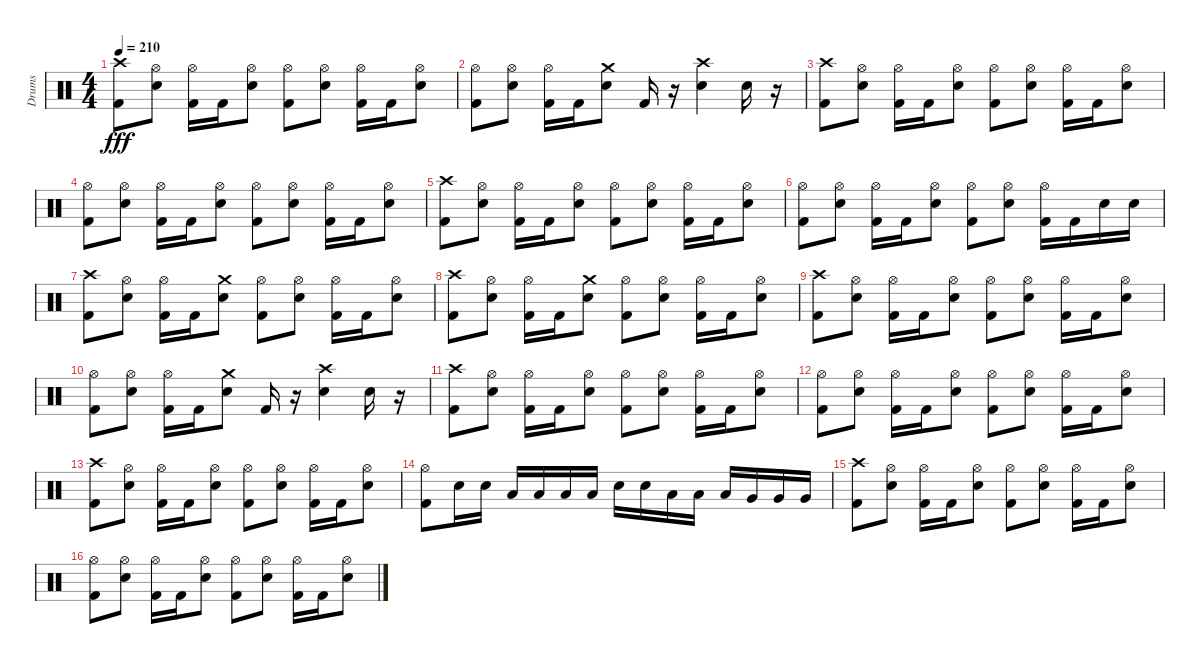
\track ("Drums" "Drums") {instrument percussion}
\staff {score}
\articulation defaults
\ts (4 4)
\tempo 210
\clef neutral
\ks c
("Kick (hit) 2" "Crash high (hit)").8{dy fff} ("Electric Snare (hit)" "Hi-Hat (open)").8 ("Kick (hit) 2" "Hi-Hat (open)").16 "Kick (hit) 2".16 ("Electric Snare (hit)" "Hi-Hat (open)").8 ("Kick (hit) 2" "Hi-Hat (open)").8 ("Electric Snare (hit)" "Hi-Hat (open)").8 ("Kick (hit) 2" "Hi-Hat (open)").16 "Kick (hit) 2".16 ("Electric Snare (hit)" "Hi-Hat (open)").8 |
("Kick (hit) 2" "Hi-Hat (open)").8 ("Electric Snare (hit)" "Hi-Hat (open)").8 ("Kick (hit) 2" "Hi-Hat (open)").16 "Kick (hit) 2".16 ("Electric Snare (hit)" "Crash medium (hit)").8 "Kick (hit) 2".16 r.16 ("Electric Snare (hit)" "Crash high (hit)").4 "Electric Snare (hit)".16 r.16 |
("Kick (hit) 2" "Crash high (hit)").8 ("Electric Snare (hit)" "Hi-Hat (open)").8 ("Kick (hit) 2" "Hi-Hat (open)").16 "Kick (hit) 2".16 ("Electric Snare (hit)" "Hi-Hat (open)").8 ("Kick (hit) 2" "Hi-Hat (open)").8 ("Electric Snare (hit)" "Hi-Hat (open)").8 ("Kick (hit) 2" "Hi-Hat (open)").16 "Kick (hit) 2".16 ("Electric Snare (hit)" "Hi-Hat (open)").8 |
("Kick (hit) 2" "Hi-Hat (open)").8 ("Electric Snare (hit)" "Hi-Hat (open)").8 ("Kick (hit) 2" "Hi-Hat (open)").16 "Kick (hit) 2".16 ("Electric Snare (hit)" "Hi-Hat (open)").8 ("Kick (hit) 2" "Hi-Hat (open)").8 ("Electric Snare (hit)" "Hi-Hat (open)").8 ("Kick (hit) 2" "Hi-Hat (open)").16 "Kick (hit) 2".16 ("Electric Snare (hit)" "Hi-Hat (open)").8 |
("Kick (hit) 2" "Crash high (hit)").8 ("Electric Snare (hit)" "Hi-Hat (open)").8 ("Kick (hit) 2" "Hi-Hat (open)").16 "Kick (hit) 2".16 ("Electric Snare (hit)" "Hi-Hat (open)").8 ("Kick (hit) 2" "Hi-Hat (open)").8 ("Electric Snare (hit)" "Hi-Hat (open)").8 ("Kick (hit) 2" "Hi-Hat (open)").16 "Kick (hit) 2".16 ("Electric Snare (hit)" "Hi-Hat (open)").8 |
("Kick (hit) 2" "Hi-Hat (open)").8 ("Electric Snare (hit)" "Hi-Hat (open)").8 ("Kick (hit) 2" "Hi-Hat (open)").16 "Kick (hit) 2".16 ("Electric Snare (hit)" "Hi-Hat (open)").8 ("Kick (hit) 2" "Hi-Hat (open)").8 ("Electric Snare (hit)" "Hi-Hat (open)").8 ("Kick (hit) 2" "Hi-Hat (open)").16 "Kick (hit) 2".16 "Electric Snare (hit)".16 "Electric Snare (hit)".16 |
("Kick (hit) 2" "Crash high (hit)").8 ("Electric Snare (hit)" "Hi-Hat (open)").8 ("Kick (hit) 2" "Hi-Hat (open)").16 "Kick (hit) 2".16 ("Electric Snare (hit)" "Crash medium (hit)").8 ("Kick (hit) 2" "Hi-Hat (open)").8 ("Electric Snare (hit)" "Hi-Hat (open)").8 ("Kick (hit) 2" "Hi-Hat (open)").16 "Kick (hit) 2".16 ("Electric Snare (hit)" "Hi-Hat (open)").8 |
("Kick (hit) 2" "Crash high (hit)").8 ("Electric Snare (hit)" "Hi-Hat (open)").8 ("Kick (hit) 2" "Hi-Hat (open)").16 "Kick (hit) 2".16 ("Electric Snare (hit)" "Crash medium (hit)").8 ("Kick (hit) 2" "Hi-Hat (open)").8 ("Electric Snare (hit)" "Hi-Hat (open)").8 ("Kick (hit) 2" "Hi-Hat (open)").16 "Kick (hit) 2".16 ("Electric Snare (hit)" "Hi-Hat (open)").8 |
("Kick (hit) 2" "Crash high (hit)").8 ("Electric Snare (hit)" "Hi-Hat (open)").8 ("Kick (hit) 2" "Hi-Hat (open)").16 "Kick (hit) 2".16 ("Electric Snare (hit)" "Hi-Hat (open)").8 ("Kick (hit) 2" "Hi-Hat (open)").8 ("Electric Snare (hit)" "Hi-Hat (open)").8 ("Kick (hit) 2" "Hi-Hat (open)").16 "Kick (hit) 2".16 ("Electric Snare (hit)" "Hi-Hat (open)").8 |
("Kick (hit) 2" "Hi-Hat (open)").8 ("Electric Snare (hit)" "Hi-Hat (open)").8 ("Kick (hit) 2" "Hi-Hat (open)").16 "Kick (hit) 2".16 ("Electric Snare (hit)" "Crash medium (hit)").8 "Kick (hit) 2".16 r.16 ("Electric Snare (hit)" "Crash high (hit)").4 "Electric Snare (hit)".16 r.16 |
("Kick (hit) 2" "Crash high (hit)").8 ("Electric Snare (hit)" "Hi-Hat (open)").8 ("Kick (hit) 2" "Hi-Hat (open)").16 "Kick (hit) 2".16 ("Electric Snare (hit)" "Hi-Hat (open)").8 ("Kick (hit) 2" "Hi-Hat (open)").8 ("Electric Snare (hit)" "Hi-Hat (open)").8 ("Kick (hit) 2" "Hi-Hat (open)").16 "Kick (hit) 2".16 ("Electric Snare (hit)" "Hi-Hat (open)").8 |
("Kick (hit) 2" "Hi-Hat (open)").8 ("Electric Snare (hit)" "Hi-Hat (open)").8 ("Kick (hit) 2" "Hi-Hat (open)").16 "Kick (hit) 2".16 ("Electric Snare (hit)" "Hi-Hat (open)").8 ("Kick (hit) 2" "Hi-Hat (open)").8 ("Electric Snare (hit)" "Hi-Hat (open)").8 ("Kick (hit) 2" "Hi-Hat (open)").16 "Kick (hit) 2".16 ("Electric Snare (hit)" "Hi-Hat (open)").8 |
("Kick (hit) 2" "Crash high (hit)").8 ("Electric Snare (hit)" "Hi-Hat (open)").8 ("Kick (hit) 2" "Hi-Hat (open)").16 "Kick (hit) 2".16 ("Electric Snare (hit)" "Hi-Hat (open)").8 ("Kick (hit) 2" "Hi-Hat (open)").8 ("Electric Snare (hit)" "Hi-Hat (open)").8 ("Kick (hit) 2" "Hi-Hat (open)").16 "Kick (hit) 2".16 ("Electric Snare (hit)" "Hi-Hat (open)").8 |
("Kick (hit) 2" "Hi-Hat (open)").8 "Electric Snare (hit)".16 "Electric Snare (hit)".16 "Low Tom (hit)".16 "Low Tom (hit)".16 "Low Tom (hit)".16 "Low Tom (hit)".16 "Electric Snare (hit)".16 "Electric Snare (hit)".16 "Low Tom (hit)".16 "Low Tom (hit)".16 "Low Tom (hit)".16 "Very Low Tom (hit)".16 "Very Low Tom (hit)".16 "Very Low Tom (hit)".16 |
("Kick (hit) 2" "Crash high (hit)").8 ("Electric Snare (hit)" "Hi-Hat (open)").8 ("Kick (hit) 2" "Hi-Hat (open)").16 "Kick (hit) 2".16 ("Electric Snare (hit)" "Hi-Hat (open)").8 ("Kick (hit) 2" "Hi-Hat (open)").8 ("Electric Snare (hit)" "Hi-Hat (open)").8 ("Kick (hit) 2" "Hi-Hat (open)").16 "Kick (hit) 2".16 ("Electric Snare (hit)" "Hi-Hat (open)").8 |
("Kick (hit) 2" "Hi-Hat (open)").8 ("Electric Snare (hit)" "Hi-Hat (open)").8 ("Kick (hit) 2" "Hi-Hat (open)").16 "Kick (hit) 2".16 ("Electric Snare (hit)" "Hi-Hat (open)").8 ("Kick (hit) 2" "Hi-Hat (open)").8 ("Electric Snare (hit)" "Hi-Hat (open)").8 ("Kick (hit) 2" "Hi-Hat (open)").16 "Kick (hit) 2".16 ("Electric Snare (hit)" "Hi-Hat (open)").8
